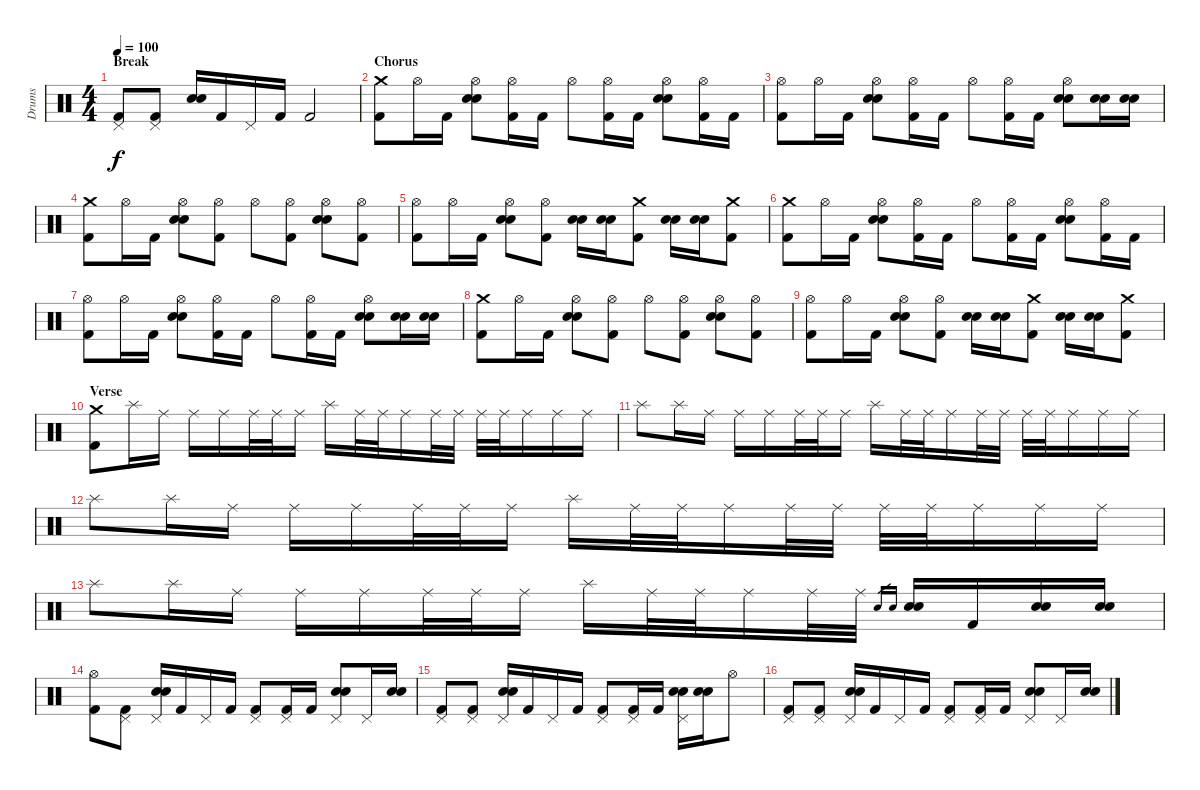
\track ("Drums" "Drums") {instrument percussion}
\staff {score}
\articulation defaults
\ts (4 4)
\section ("" "Break")
\tempo 100
\clef neutral
\ks c
("Pedal Hi-Hat (hit)" "Kick (hit) 2").8{dy f} ("Pedal Hi-Hat (hit)" "Kick (hit) 2").8 ("Electric Snare (hit)" "Snare (hit) 2").16 "Kick (hit) 2".16 "Pedal Hi-Hat (hit)".16 "Kick (hit) 2".16 "Kick (hit) 2".2 |
\section ("" "Chorus")
("Crash medium (hit)" "Kick (hit) 2").8 "Hi-Hat (open)".16 "Kick (hit) 2".16 ("Hi-Hat (open)" "Electric Snare (hit)" "Snare (hit) 2").8 ("Hi-Hat (open)" "Kick (hit) 2").16 "Kick (hit) 2".16 "Hi-Hat (open)".8 ("Hi-Hat (open)" "Kick (hit) 2").16 "Kick (hit) 2".16 ("Hi-Hat (open)" "Electric Snare (hit)" "Snare (hit) 2").8 ("Hi-Hat (open)" "Kick (hit) 2").16 "Kick (hit) 2".16 |
("Hi-Hat (open)" "Kick (hit) 2").8 "Hi-Hat (open)".16 "Kick (hit) 2".16 ("Hi-Hat (open)" "Electric Snare (hit)" "Snare (hit) 2").8 ("Hi-Hat (open)" "Kick (hit) 2").16 "Kick (hit) 2".16 "Hi-Hat (open)".8 ("Hi-Hat (open)" "Kick (hit) 2").16 "Kick (hit) 2".16 ("Hi-Hat (open)" "Electric Snare (hit)" "Snare (hit) 2").8 ("Electric Snare (hit)" "Snare (hit) 2").16 ("Electric Snare (hit)" "Snare (hit) 2").16 |
("Crash medium (hit)" "Kick (hit) 2").8 "Hi-Hat (open)".16 "Kick (hit) 2".16 ("Hi-Hat (open)" "Electric Snare (hit)" "Snare (hit) 2").8 ("Hi-Hat (open)" "Kick (hit) 2").8 "Hi-Hat (open)".8 ("Hi-Hat (open)" "Kick (hit) 2").8 ("Hi-Hat (open)" "Electric Snare (hit)" "Snare (hit) 2").8 ("Hi-Hat (open)" "Kick (hit) 2").8 |
("Hi-Hat (open)" "Kick (hit) 2").8 "Hi-Hat (open)".16 "Kick (hit) 2".16 ("Hi-Hat (open)" "Electric Snare (hit)" "Snare (hit) 2").8 ("Hi-Hat (open)" "Kick (hit) 2").8 ("Electric Snare (hit)" "Snare (hit) 2").16 ("Electric Snare (hit)" "Snare (hit) 2").16 ("Crash medium (hit)" "Kick (hit) 2").8 ("Electric Snare (hit)" "Snare (hit) 2").16 ("Electric Snare (hit)" "Snare (hit) 2").16 ("Crash medium (hit)" "Kick (hit) 2").8 |
("Crash medium (hit)" "Kick (hit) 2").8 "Hi-Hat (open)".16 "Kick (hit) 2".16 ("Hi-Hat (open)" "Electric Snare (hit)" "Snare (hit) 2").8 ("Hi-Hat (open)" "Kick (hit) 2").16 "Kick (hit) 2".16 "Hi-Hat (open)".8 ("Hi-Hat (open)" "Kick (hit) 2").16 "Kick (hit) 2".16 ("Hi-Hat (open)" "Electric Snare (hit)" "Snare (hit) 2").8 ("Hi-Hat (open)" "Kick (hit) 2").16 "Kick (hit) 2".16 |
("Hi-Hat (open)" "Kick (hit) 2").8 "Hi-Hat (open)".16 "Kick (hit) 2".16 ("Hi-Hat (open)" "Electric Snare (hit)" "Snare (hit) 2").8 ("Hi-Hat (open)" "Kick (hit) 2").16 "Kick (hit) 2".16 "Hi-Hat (open)".8 ("Hi-Hat (open)" "Kick (hit) 2").16 "Kick (hit) 2".16 ("Hi-Hat (open)" "Electric Snare (hit)" "Snare (hit) 2").8 ("Electric Snare (hit)" "Snare (hit) 2").16 ("Electric Snare (hit)" "Snare (hit) 2").16 |
("Crash medium (hit)" "Kick (hit) 2").8 "Hi-Hat (open)".16 "Kick (hit) 2".16 ("Hi-Hat (open)" "Electric Snare (hit)" "Snare (hit) 2").8 ("Hi-Hat (open)" "Kick (hit) 2").8 "Hi-Hat (open)".8 ("Hi-Hat (open)" "Kick (hit) 2").8 ("Hi-Hat (open)" "Electric Snare (hit)" "Snare (hit) 2").8 ("Hi-Hat (open)" "Kick (hit) 2").8 |
("Hi-Hat (open)" "Kick (hit) 2").8 "Hi-Hat (open)".16 "Kick (hit) 2".16 ("Hi-Hat (open)" "Electric Snare (hit)" "Snare (hit) 2").8 ("Hi-Hat (open)" "Kick (hit) 2").8 ("Electric Snare (hit)" "Snare (hit) 2").16 ("Electric Snare (hit)" "Snare (hit) 2").16 ("Crash medium (hit)" "Kick (hit) 2").8 ("Electric Snare (hit)" "Snare (hit) 2").16 ("Electric Snare (hit)" "Snare (hit) 2").16 ("Crash medium (hit)" "Kick (hit) 2").8 |
\section ("" "Verse")
("Crash medium (hit)" "Kick (hit) 2").8 "Splash (hit)".16 "Ride (middle)".16 "Ride (middle)".16 "Ride (middle)".16 "Ride (middle)".32 "Ride (middle)".32 "Ride (middle)".16 "Splash (hit)".16 "Ride (middle)".32 "Ride (middle)".32 "Ride (middle)".16 "Ride (middle)".32 "Ride (middle)".32 "Ride (middle)".32 "Ride (middle)".32 "Ride (middle)".16 "Ride (middle)".16 "Ride (middle)".16 |
"Splash (hit)".8 "Splash (hit)".16 "Ride (middle)".16 "Ride (middle)".16 "Ride (middle)".16 "Ride (middle)".32 "Ride (middle)".32 "Ride (middle)".16 "Splash (hit)".16 "Ride (middle)".32 "Ride (middle)".32 "Ride (middle)".16 "Ride (middle)".32 "Ride (middle)".32 "Ride (middle)".32 "Ride (middle)".32 "Ride (middle)".16 "Ride (middle)".16 "Ride (middle)".16 |
"Splash (hit)".8 "Splash (hit)".16 "Ride (middle)".16 "Ride (middle)".16 "Ride (middle)".16 "Ride (middle)".32 "Ride (middle)".32 "Ride (middle)".16 "Splash (hit)".16 "Ride (middle)".32 "Ride (middle)".32 "Ride (middle)".16 "Ride (middle)".32 "Ride (middle)".32 "Ride (middle)".32 "Ride (middle)".32 "Ride (middle)".16 "Ride (middle)".16 "Ride (middle)".16 |
"Splash (hit)".8 "Splash (hit)".16 "Ride (middle)".16 "Ride (middle)".16 "Ride (middle)".16 "Ride (middle)".32 "Ride (middle)".32 "Ride (middle)".16 "Splash (hit)".16 "Ride (middle)".32 "Ride (middle)".32 "Ride (middle)".16 "Ride (middle)".32 "Ride (middle)".32 "Snare (hit)".16{gr} "Snare (hit) 2".16{gr} ("Electric Snare (hit)" "Snare (hit) 2").16 "Kick (hit) 2".16 ("Electric Snare (hit)" "Snare (hit) 2").16 ("Electric Snare (hit)" "Snare (hit) 2").16 |
("Hi-Hat (open)" "Kick (hit) 2").8 ("Pedal Hi-Hat (hit)" "Kick (hit) 2").8 ("Pedal Hi-Hat (hit)" "Electric Snare (hit)" "Snare (hit) 2").16 "Kick (hit) 2".16 "Pedal Hi-Hat (hit)".16 "Kick (hit) 2".16 ("Pedal Hi-Hat (hit)" "Kick (hit) 2").8 ("Pedal Hi-Hat (hit)" "Kick (hit) 2").16 "Kick (hit) 2".16 ("Pedal Hi-Hat (hit)" "Electric Snare (hit)" "Snare (hit) 2").8 "Pedal Hi-Hat (hit)".16 ("Electric Snare (hit)" "Snare (hit) 2").16 |
("Pedal Hi-Hat (hit)" "Kick (hit) 2").8 ("Pedal Hi-Hat (hit)" "Kick (hit) 2").8 ("Pedal Hi-Hat (hit)" "Electric Snare (hit)" "Snare (hit) 2").16 "Kick (hit) 2".16 "Pedal Hi-Hat (hit)".16 "Kick (hit) 2".16 ("Pedal Hi-Hat (hit)" "Kick (hit) 2").8 ("Pedal Hi-Hat (hit)" "Kick (hit) 2").16 "Kick (hit) 2".16 ("Pedal Hi-Hat (hit)" "Electric Snare (hit)" "Snare (hit) 2").16 ("Electric Snare (hit)" "Snare (hit) 2").16 "Hi-Hat (open)".8 |
("Pedal Hi-Hat (hit)" "Kick (hit) 2").8 ("Pedal Hi-Hat (hit)" "Kick (hit) 2").8 ("Pedal Hi-Hat (hit)" "Electric Snare (hit)" "Snare (hit) 2").16 "Kick (hit) 2".16 "Pedal Hi-Hat (hit)".16 "Kick (hit) 2".16 ("Pedal Hi-Hat (hit)" "Kick (hit) 2").8 ("Pedal Hi-Hat (hit)" "Kick (hit) 2").16 "Kick (hit) 2".16 ("Pedal Hi-Hat (hit)" "Electric Snare (hit)" "Snare (hit) 2").8 "Pedal Hi-Hat (hit)".16 ("Electric Snare (hit)" "Snare (hit) 2").16
